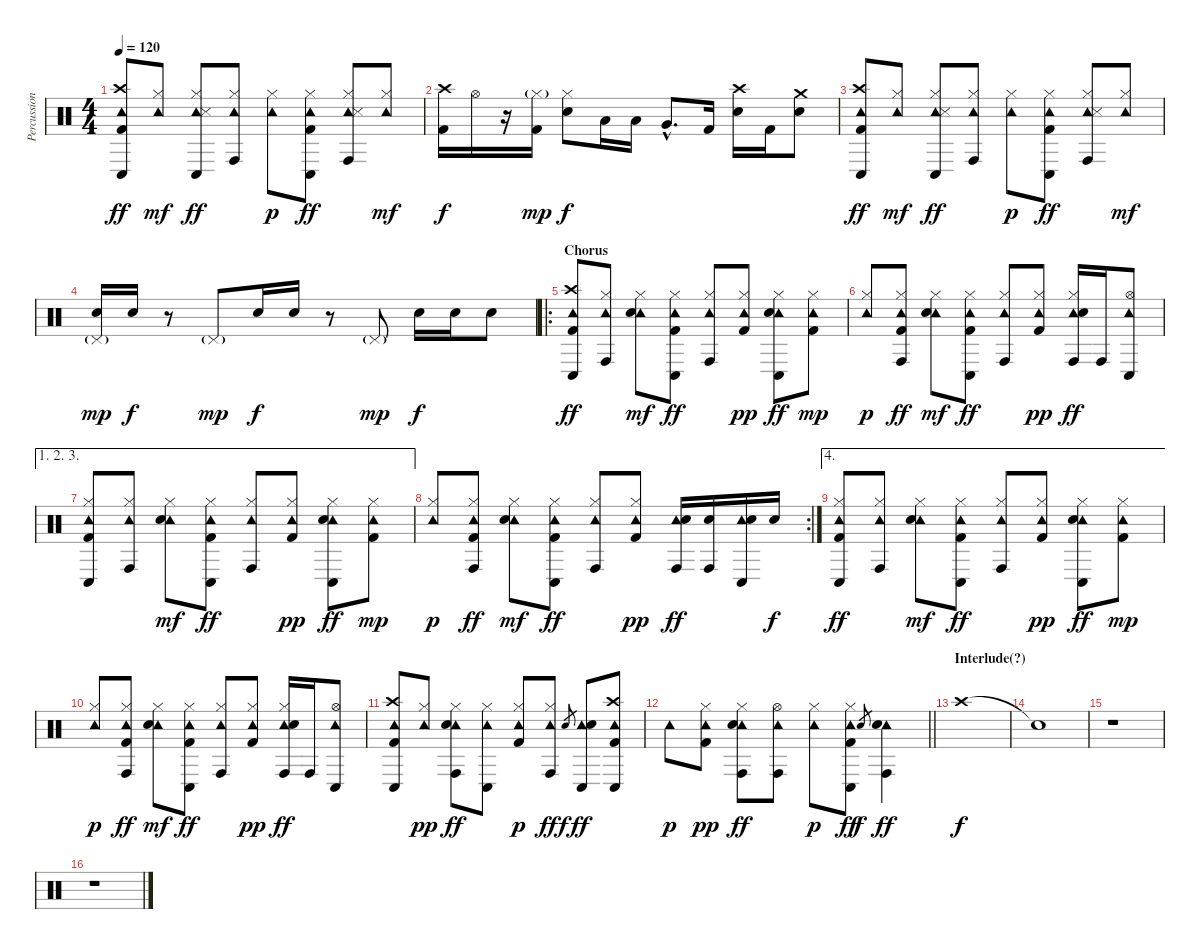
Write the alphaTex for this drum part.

\track ("Percussion" "Percussion") {instrument percussion}
\staff {score}
\articulation defaults
\ts (4 4)
\tempo 120
\clef neutral
\ks c
("Kick (hit) 2" "Crash high (hit)" "Tambourine (hit)" "Conga low (hit)").8{dy ff} ("Tambourine (hit)" "Hi-Hat (closed)").8{dy mf} ("Tambourine (hit)" "Snare (side stick) 3" "Hi-Hat (closed)" "Conga low (hit)").8{dy ff} ("Tambourine (hit)" "Hi-Hat (closed)" "Conga high (hit)").8 ("Tambourine (hit)" "Hi-Hat (closed)").8{dy p} ("Kick (hit) 2" "Tambourine (hit)" "Hi-Hat (closed)" "Conga low (hit)").8{dy ff} ("Tambourine (hit)" "Snare (side stick) 3" "Hi-Hat (closed)" "Conga high (hit)").8 ("Tambourine (hit)" "Hi-Hat (closed)").8{dy mf} |
("Kick (hit) 2" "Crash high (hit)").16{dy f} "Hi-Hat (open)".16 r.16 ("Kick (hit) 2" "Hi-Hat (closed)"{g}).16{dy mp} ("Snare (hit) 2" "Hi-Hat (closed)").8{dy f} "Low Tom (hit)".16 "Low Tom (hit)".16 "Very Low Tom (hit)"{hac}.8{d} "Kick (hit) 2".16 ("Crash high (hit)" "Snare (hit) 2").16 "Kick (hit) 2".16 ("Crash medium (hit)" "Snare (hit) 2").8 |
("Kick (hit) 2" "Crash high (hit)" "Tambourine (hit)" "Conga low (hit)").8{dy ff} ("Tambourine (hit)" "Hi-Hat (closed)").8{dy mf} ("Tambourine (hit)" "Snare (side stick) 3" "Hi-Hat (closed)" "Conga low (hit)").8{dy ff} ("Tambourine (hit)" "Hi-Hat (closed)" "Conga high (hit)").8 ("Tambourine (hit)" "Hi-Hat (closed)").8{dy p} ("Kick (hit) 2" "Tambourine (hit)" "Hi-Hat (closed)" "Conga low (hit)").8{dy ff} ("Tambourine (hit)" "Snare (side stick) 3" "Hi-Hat (closed)" "Conga high (hit)").8 ("Tambourine (hit)" "Hi-Hat (closed)").8{dy mf} |
("Snare (hit) 2" "Pedal Hi-Hat (hit)"{g}).16{dy mp} "Snare (hit) 2".16{dy f} r.8 "Pedal Hi-Hat (hit)"{g}.8{dy mp} "Snare (hit) 2".16{dy f} "Snare (hit) 2".16 r.8 "Pedal Hi-Hat (hit)"{g}.8{dy mp} "Snare (hit) 2".16{dy f} "Snare (hit) 2".16 "Snare (hit) 2".8 |
\ro
\section ("" "Chorus")
("Kick (hit) 2" "Crash high (hit)" "Tambourine (hit)" "Conga low (hit)").8{dy ff} ("Tambourine (hit)" "Hi-Hat (closed)" "Conga high (hit)").8 ("Tambourine (hit)" "Snare (hit) 2" "Hi-Hat (closed)").8{dy mf} ("Kick (hit) 2" "Tambourine (hit)" "Hi-Hat (closed)" "Conga low (hit)").8{dy ff} ("Tambourine (hit)" "Hi-Hat (closed)" "Conga high (hit)").8 ("Kick (hit) 2" "Tambourine (hit)" "Hi-Hat (closed)").8{dy pp} ("Tambourine (hit)" "Snare (hit) 2" "Hi-Hat (closed)" "Conga low (hit)").8{dy ff} ("Kick (hit) 2" "Tambourine (hit)" "Hi-Hat (closed)").8{dy mp} |
("Tambourine (hit)" "Hi-Hat (closed)").8{dy p} ("Kick (hit) 2" "Tambourine (hit)" "Hi-Hat (closed)" "Conga high (hit)").8{dy ff} ("Tambourine (hit)" "Snare (hit) 2" "Hi-Hat (closed)").8{dy mf} ("Kick (hit) 2" "Tambourine (hit)" "Hi-Hat (closed)" "Conga low (hit)").8{dy ff} ("Tambourine (hit)" "Hi-Hat (closed)" "Conga high (hit)").8 ("Kick (hit) 2" "Tambourine (hit)" "Hi-Hat (closed)").8{dy pp} ("Tambourine (hit)" "Snare (hit) 2" "Hi-Hat (closed)" "Conga high (hit)").16{dy ff} "Conga high (hit)".16 ("Tambourine (hit)" "Hi-Hat (open)" "Conga low (hit)").8 |
\ae (1 2 3)
("Kick (hit) 2" "Tambourine (hit)" "Hi-Hat (closed)" "Conga low (hit)").8 ("Tambourine (hit)" "Hi-Hat (closed)" "Conga high (hit)").8 ("Tambourine (hit)" "Snare (hit) 2" "Hi-Hat (closed)").8{dy mf} ("Kick (hit) 2" "Tambourine (hit)" "Hi-Hat (closed)" "Conga low (hit)").8{dy ff} ("Tambourine (hit)" "Hi-Hat (closed)" "Conga high (hit)").8 ("Kick (hit) 2" "Tambourine (hit)" "Hi-Hat (closed)").8{dy pp} ("Tambourine (hit)" "Snare (hit) 2" "Hi-Hat (closed)" "Conga low (hit)").8{dy ff} ("Kick (hit) 2" "Tambourine (hit)" "Hi-Hat (closed)").8{dy mp} |
\rc 2
("Tambourine (hit)" "Hi-Hat (closed)").8{dy p} ("Kick (hit) 2" "Tambourine (hit)" "Hi-Hat (closed)" "Conga high (hit)").8{dy ff} ("Tambourine (hit)" "Snare (hit) 2" "Hi-Hat (closed)").8{dy mf} ("Kick (hit) 2" "Tambourine (hit)" "Hi-Hat (closed)" "Conga low (hit)").8{dy ff} ("Tambourine (hit)" "Hi-Hat (closed)" "Conga high (hit)").8 ("Kick (hit) 2" "Tambourine (hit)" "Hi-Hat (closed)").8{dy pp} ("Tambourine (hit)" "Snare (hit) 2" "Conga high (hit)").16{dy ff} ("Snare (hit) 2" "Conga high (hit)").16 ("Tambourine (hit)" "Snare (hit) 2" "Conga low (hit)").16 "Snare (hit) 2".16{dy f} |
\ae 4
("Kick (hit) 2" "Tambourine (hit)" "Hi-Hat (closed)" "Conga low (hit)").8{dy ff} ("Tambourine (hit)" "Hi-Hat (closed)" "Conga high (hit)").8 ("Tambourine (hit)" "Snare (hit) 2" "Hi-Hat (closed)").8{dy mf} ("Kick (hit) 2" "Tambourine (hit)" "Hi-Hat (closed)" "Conga low (hit)").8{dy ff} ("Tambourine (hit)" "Hi-Hat (closed)" "Conga high (hit)").8 ("Kick (hit) 2" "Tambourine (hit)" "Hi-Hat (closed)").8{dy pp} ("Tambourine (hit)" "Snare (hit) 2" "Hi-Hat (closed)" "Conga low (hit)").8{dy ff} ("Kick (hit) 2" "Tambourine (hit)" "Hi-Hat (closed)").8{dy mp} |
("Tambourine (hit)" "Hi-Hat (closed)").8{dy p} ("Kick (hit) 2" "Tambourine (hit)" "Hi-Hat (closed)" "Conga high (hit)").8{dy ff} ("Tambourine (hit)" "Snare (hit) 2" "Hi-Hat (closed)").8{dy mf} ("Kick (hit) 2" "Tambourine (hit)" "Hi-Hat (closed)" "Conga low (hit)").8{dy ff} ("Tambourine (hit)" "Hi-Hat (closed)" "Conga high (hit)").8 ("Kick (hit) 2" "Tambourine (hit)" "Hi-Hat (closed)").8{dy pp} ("Tambourine (hit)" "Snare (hit) 2" "Hi-Hat (closed)" "Conga high (hit)").16{dy ff} "Conga high (hit)".16 ("Tambourine (hit)" "Hi-Hat (open)" "Conga low (hit)").8 |
("Kick (hit) 2" "Crash high (hit)" "Tambourine (hit)" "Conga low (hit)").8 ("Tambourine (hit)" "Hi-Hat (closed)").8{dy pp} ("Tambourine (hit)" "Snare (hit) 2" "Hi-Hat (closed)" "Conga high (hit)").8{dy ff} ("Tambourine (hit)" "Hi-Hat (closed)" "Conga low (hit)").8 ("Kick (hit) 2" "Tambourine (hit)" "Hi-Hat (closed)").8{dy p} ("Tambourine (hit)" "Hi-Hat (closed)" "Conga high (hit)").8{dy ff} "Snare (hit) 2".8{gr dy f} ("Tambourine (hit)" "Snare (hit) 2" "Conga low (hit)").8{dy ff} ("Kick (hit) 2" "Crash high (hit)" "Tambourine (hit)" "Conga low (hit)").8 |
\barLineRight lightlight "Tambourine (hit)".8{dy p}
("Kick (hit) 2" "Tambourine (hit)" "Hi-Hat (closed)").8{dy pp} ("Tambourine (hit)" "Snare (hit) 2" "Hi-Hat (closed)" "Conga high (hit)").8{dy ff} ("Tambourine (hit)" "Hi-Hat (open)" "Conga high (hit)").8 ("Tambourine (hit)" "Hi-Hat (closed)").8{dy p} ("Kick (hit) 2" "Tambourine (hit)" "Hi-Hat (closed)" "Conga low (hit)").8{dy ff} "Snare (hit) 2".8{gr dy f} ("Tambourine (hit)" "Snare (hit) 2" "Conga high (hit)").4{dy ff} |
\section ("" "Interlude(?)")
"Crash high (hit)".1{dy f} |
"Snare (hit)"{t}.1 |
r.1 |
r.1
